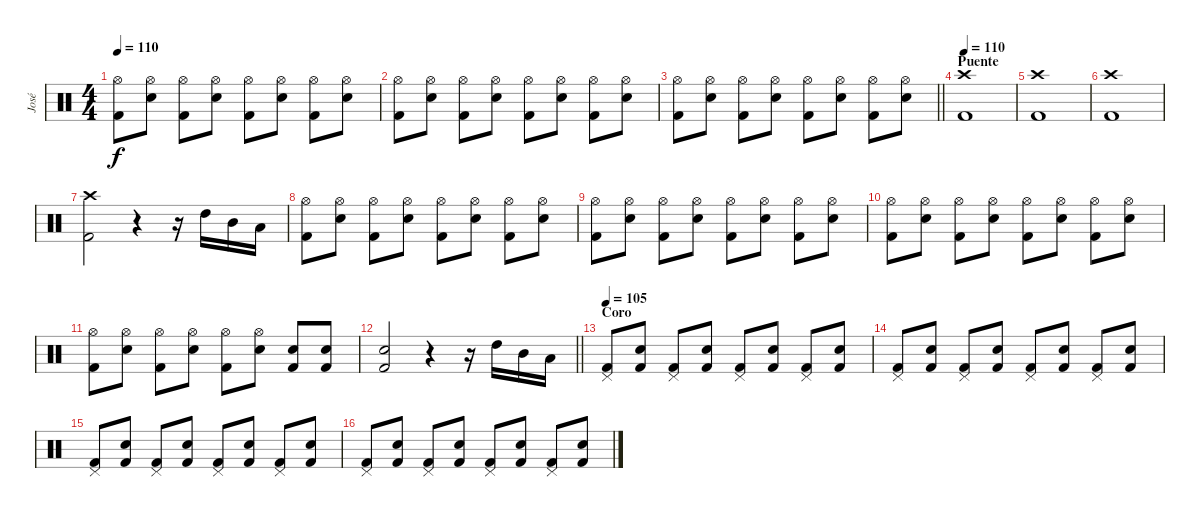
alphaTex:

\track ("José" "José") {instrument percussion}
\staff
\articulation defaults
\ts (4 4)
\tempo 110
\clef neutral
\ks c
("Hi-Hat (open)" "Kick (hit) 2").8{dy f} ("Hi-Hat (open)" "Electric Snare (hit)").8 ("Hi-Hat (open)" "Kick (hit) 2").8 ("Hi-Hat (open)" "Electric Snare (hit)").8 ("Hi-Hat (open)" "Kick (hit) 2").8 ("Hi-Hat (open)" "Electric Snare (hit)").8 ("Hi-Hat (open)" "Kick (hit) 2").8 ("Hi-Hat (open)" "Electric Snare (hit)").8 |
("Hi-Hat (open)" "Kick (hit) 2").8 ("Hi-Hat (open)" "Electric Snare (hit)").8 ("Hi-Hat (open)" "Kick (hit) 2").8 ("Hi-Hat (open)" "Electric Snare (hit)").8 ("Hi-Hat (open)" "Kick (hit) 2").8 ("Hi-Hat (open)" "Electric Snare (hit)").8 ("Hi-Hat (open)" "Kick (hit) 2").8 ("Hi-Hat (open)" "Electric Snare (hit)").8 |
\barLineRight lightlight
("Hi-Hat (open)" "Kick (hit) 2").8 ("Hi-Hat (open)" "Electric Snare (hit)").8 ("Hi-Hat (open)" "Kick (hit) 2").8 ("Hi-Hat (open)" "Electric Snare (hit)").8 ("Hi-Hat (open)" "Kick (hit) 2").8 ("Hi-Hat (open)" "Electric Snare (hit)").8 ("Hi-Hat (open)" "Kick (hit) 2").8 ("Hi-Hat (open)" "Electric Snare (hit)").8 |
\section ("" "Puente")
\tempo 120
\tempo 110
("Crash high (hit)" "Kick (hit) 2").1 |
("Crash high (hit)" "Kick (hit) 2").1 |
("Crash high (hit)" "Kick (hit) 2").1 |
("Crash high (hit)" "Kick (hit) 2").2 r.4 r.16 "High Tom (hit)".16 "Mid Tom (hit)".16 "Low Tom (hit)".16 |
("Hi-Hat (open)" "Kick (hit) 2").8 ("Hi-Hat (open)" "Electric Snare (hit)").8 ("Hi-Hat (open)" "Kick (hit) 2").8 ("Hi-Hat (open)" "Electric Snare (hit)").8 ("Hi-Hat (open)" "Kick (hit) 2").8 ("Hi-Hat (open)" "Electric Snare (hit)").8 ("Hi-Hat (open)" "Kick (hit) 2").8 ("Hi-Hat (open)" "Electric Snare (hit)").8 |
("Hi-Hat (open)" "Kick (hit) 2").8 ("Hi-Hat (open)" "Electric Snare (hit)").8 ("Hi-Hat (open)" "Kick (hit) 2").8 ("Hi-Hat (open)" "Electric Snare (hit)").8 ("Hi-Hat (open)" "Kick (hit) 2").8 ("Hi-Hat (open)" "Electric Snare (hit)").8 ("Hi-Hat (open)" "Kick (hit) 2").8 ("Hi-Hat (open)" "Electric Snare (hit)").8 |
("Hi-Hat (open)" "Kick (hit) 2").8 ("Hi-Hat (open)" "Electric Snare (hit)").8 ("Hi-Hat (open)" "Kick (hit) 2").8 ("Hi-Hat (open)" "Electric Snare (hit)").8 ("Hi-Hat (open)" "Kick (hit) 2").8 ("Hi-Hat (open)" "Electric Snare (hit)").8 ("Hi-Hat (open)" "Kick (hit) 2").8 ("Hi-Hat (open)" "Electric Snare (hit)").8 |
("Hi-Hat (open)" "Kick (hit) 2").8 ("Hi-Hat (open)" "Electric Snare (hit)").8 ("Hi-Hat (open)" "Kick (hit) 2").8 ("Hi-Hat (open)" "Electric Snare (hit)").8 ("Hi-Hat (open)" "Kick (hit) 2").8 ("Hi-Hat (open)" "Electric Snare (hit)").8 ("Electric Snare (hit)" "Kick (hit) 2").8 ("Electric Snare (hit)" "Kick (hit) 2").8 |
\barLineRight lightlight
("Electric Snare (hit)" "Kick (hit) 2").2 r.4 r.16 "High Tom (hit)".16 "Mid Tom (hit)".16 "Low Tom (hit)".16 |
\section ("" "Coro")
\tempo 105
("Pedal Hi-Hat (hit)" "Kick (hit) 2").8 ("Electric Snare (hit)" "Kick (hit) 2").8 ("Pedal Hi-Hat (hit)" "Kick (hit) 2").8 ("Electric Snare (hit)" "Kick (hit) 2").8 ("Pedal Hi-Hat (hit)" "Kick (hit) 2").8 ("Electric Snare (hit)" "Kick (hit) 2").8 ("Pedal Hi-Hat (hit)" "Kick (hit) 2").8 ("Electric Snare (hit)" "Kick (hit) 2").8 |
("Pedal Hi-Hat (hit)" "Kick (hit) 2").8 ("Electric Snare (hit)" "Kick (hit) 2").8 ("Pedal Hi-Hat (hit)" "Kick (hit) 2").8 ("Electric Snare (hit)" "Kick (hit) 2").8 ("Pedal Hi-Hat (hit)" "Kick (hit) 2").8 ("Electric Snare (hit)" "Kick (hit) 2").8 ("Pedal Hi-Hat (hit)" "Kick (hit) 2").8 ("Electric Snare (hit)" "Kick (hit) 2").8 |
("Pedal Hi-Hat (hit)" "Kick (hit) 2").8 ("Electric Snare (hit)" "Kick (hit) 2").8 ("Pedal Hi-Hat (hit)" "Kick (hit) 2").8 ("Electric Snare (hit)" "Kick (hit) 2").8 ("Pedal Hi-Hat (hit)" "Kick (hit) 2").8 ("Electric Snare (hit)" "Kick (hit) 2").8 ("Pedal Hi-Hat (hit)" "Kick (hit) 2").8 ("Electric Snare (hit)" "Kick (hit) 2").8 |
("Pedal Hi-Hat (hit)" "Kick (hit) 2").8 ("Electric Snare (hit)" "Kick (hit) 2").8 ("Pedal Hi-Hat (hit)" "Kick (hit) 2").8 ("Electric Snare (hit)" "Kick (hit) 2").8 ("Pedal Hi-Hat (hit)" "Kick (hit) 2").8 ("Electric Snare (hit)" "Kick (hit) 2").8 ("Pedal Hi-Hat (hit)" "Kick (hit) 2").8 ("Electric Snare (hit)" "Kick (hit) 2").8
